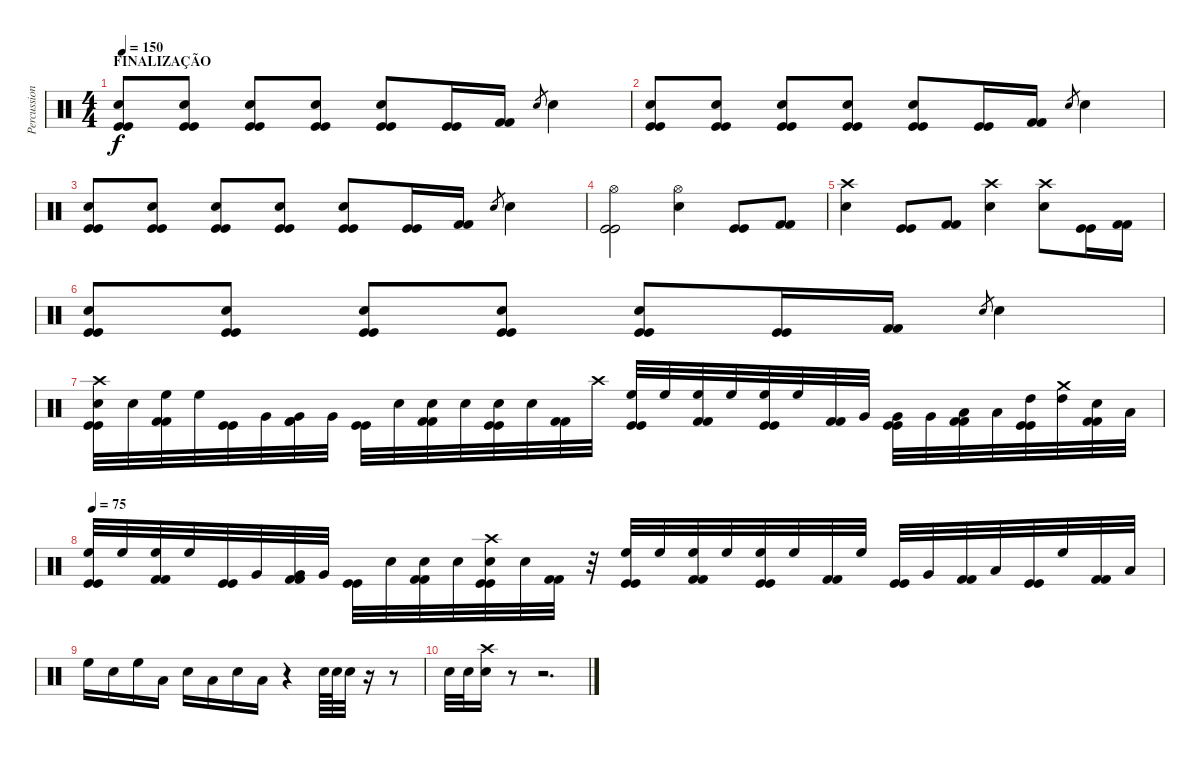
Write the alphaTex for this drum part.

\track ("Percussion" "Percussion") {instrument percussion}
\staff {score}
\articulation defaults
\ts (4 4)
\section ("" "FINALIZAÇÃO")
\tempo 150
\clef neutral
\ks c
("Electric Snare (hit)" "Kick (hit)" "Kick (hit)").8{dy f} ("Electric Snare (hit)" "Kick (hit)" "Kick (hit)").8 ("Electric Snare (hit)" "Kick (hit)" "Kick (hit)").8 ("Electric Snare (hit)" "Kick (hit)" "Kick (hit)").8 ("Electric Snare (hit)" "Kick (hit)" "Kick (hit)").8 ("Kick (hit)" "Kick (hit)").16 ("Kick (hit) 2" "Kick (hit) 2").16 "Electric Snare (hit)".8{gr} "Electric Snare (hit)".4 |
("Electric Snare (hit)" "Kick (hit)" "Kick (hit)").8 ("Electric Snare (hit)" "Kick (hit)" "Kick (hit)").8 ("Electric Snare (hit)" "Kick (hit)" "Kick (hit)").8 ("Electric Snare (hit)" "Kick (hit)" "Kick (hit)").8 ("Electric Snare (hit)" "Kick (hit)" "Kick (hit)").8 ("Kick (hit)" "Kick (hit)").16 ("Kick (hit) 2" "Kick (hit) 2").16 "Electric Snare (hit)".8{gr} "Electric Snare (hit)".4 |
("Electric Snare (hit)" "Kick (hit)" "Kick (hit)").8 ("Electric Snare (hit)" "Kick (hit)" "Kick (hit)").8 ("Electric Snare (hit)" "Kick (hit)" "Kick (hit)").8 ("Electric Snare (hit)" "Kick (hit)" "Kick (hit)").8 ("Electric Snare (hit)" "Kick (hit)" "Kick (hit)").8 ("Kick (hit)" "Kick (hit)").16 ("Kick (hit) 2" "Kick (hit) 2").16 "Electric Snare (hit)".8{gr} "Electric Snare (hit)".4 |
("Hi-Hat (open)" "Kick (hit)" "Kick (hit)").2 ("Hi-Hat (open)" "Electric Snare (hit)").4 ("Kick (hit)" "Kick (hit)").8 ("Kick (hit) 2" "Kick (hit) 2").8 |
("Crash high (hit)" "Electric Snare (hit)").4 ("Kick (hit)" "Kick (hit)").8 ("Kick (hit) 2" "Kick (hit) 2").8 ("Crash high (hit)" "Electric Snare (hit)").4 ("Crash high (hit)" "Electric Snare (hit)").8 ("Kick (hit)" "Kick (hit)").16 ("Kick (hit) 2" "Kick (hit) 2").16 |
("Electric Snare (hit)" "Kick (hit)" "Kick (hit)").8 ("Electric Snare (hit)" "Kick (hit)" "Kick (hit)").8 ("Electric Snare (hit)" "Kick (hit)" "Kick (hit)").8 ("Electric Snare (hit)" "Kick (hit)" "Kick (hit)").8 ("Electric Snare (hit)" "Kick (hit)" "Kick (hit)").8 ("Kick (hit)" "Kick (hit)").16 ("Kick (hit) 2" "Kick (hit) 2").16 "Electric Snare (hit)".8{gr} "Electric Snare (hit)".4 |
("Crash high (hit)" "Electric Snare (hit)" "Kick (hit)" "Kick (hit)").32 "Electric Snare (hit)".32 ("High Floor Tom (hit)" "Kick (hit) 2" "Kick (hit) 2").32 "High Floor Tom (hit)".32 ("Kick (hit)" "Kick (hit)").32 "Very Low Tom (hit)".32 ("Very Low Tom (hit)" "Kick (hit) 2" "Kick (hit) 2").32 "Very Low Tom (hit)".32 ("Kick (hit)" "Kick (hit)").32 "Electric Snare (hit)".32 ("Electric Snare (hit)" "Kick (hit) 2" "Kick (hit) 2").32 "Electric Snare (hit)".32 ("Electric Snare (hit)" "Kick (hit)" "Kick (hit)").32 "Electric Snare (hit)".32 ("Kick (hit) 2" "Kick (hit) 2").32 "Crash high (hit)".32 ("High Floor Tom (hit)" "Kick (hit)" "Kick (hit)").32 "High Floor Tom (hit)".32 ("High Floor Tom (hit)" "Kick (hit) 2" "Kick (hit) 2").32 "High Floor Tom (hit)".32 ("High Floor Tom (hit)" "Kick (hit)" "Kick (hit)").32 "High Floor Tom (hit)".32 ("Kick (hit) 2" "Kick (hit) 2").32 "Very Low Tom (hit)".32 ("Very Low Tom (hit)" "Kick (hit)" "Kick (hit)").32 "Very Low Tom (hit)".32 ("Low Tom (hit)" "Kick (hit) 2" "Kick (hit) 2").32 "Low Tom (hit)".32 ("High Tom (hit)" "Kick (hit)" "Kick (hit)").32 ("Crash medium (hit)" "High Tom (hit)").32 ("Electric Snare (hit)" "Kick (hit) 2" "Kick (hit) 2").32 "Low Floor Tom (hit)".32 |
\tempo 75
("High Floor Tom (hit)" "Kick (hit)" "Kick (hit)").32 "High Floor Tom (hit)".32 ("High Floor Tom (hit)" "Kick (hit) 2" "Kick (hit) 2").32 "High Floor Tom (hit)".32 ("Kick (hit)" "Kick (hit)").32 "Very Low Tom (hit)".32 ("Very Low Tom (hit)" "Kick (hit) 2" "Kick (hit) 2").32 "Very Low Tom (hit)".32 ("Kick (hit)" "Kick (hit)").32 "Electric Snare (hit)".32 ("Electric Snare (hit)" "Kick (hit) 2" "Kick (hit) 2").32 "Electric Snare (hit)".32 ("Crash high (hit)" "Electric Snare (hit)" "Kick (hit)" "Kick (hit)").32 "Electric Snare (hit)".32 ("Kick (hit) 2" "Kick (hit) 2").32 r.32 ("High Floor Tom (hit)" "Kick (hit)" "Kick (hit)").32 "High Floor Tom (hit)".32 ("High Floor Tom (hit)" "Kick (hit) 2" "Kick (hit) 2").32 "High Floor Tom (hit)".32 ("High Floor Tom (hit)" "Kick (hit)" "Kick (hit)").32 "High Floor Tom (hit)".32 ("Kick (hit) 2" "Kick (hit) 2").32 "High Floor Tom (hit)".32 ("Kick (hit)" "Kick (hit)").32 "Very Low Tom (hit)".32 ("Kick (hit) 2" "Kick (hit) 2").32 "Low Tom (hit)".32 ("Kick (hit)" "Kick (hit)").32 "High Floor Tom (hit)".32 ("Kick (hit) 2" "Kick (hit) 2").32 "Low Floor Tom (hit)".32 |
"High Floor Tom (hit)".16 "Electric Snare (hit)".16 "High Floor Tom (hit)".16 "Low Floor Tom (hit)".16 "Electric Snare (hit)".16 "Low Floor Tom (hit)".16 "Electric Snare (hit)".16 "Low Floor Tom (hit)".16 r.4 "Electric Snare (hit)".64 "Electric Snare (hit)".64 "Electric Snare (hit)".32 r.16 r.8 |
"Electric Snare (hit)".32 "Electric Snare (hit)".32 ("Crash high (hit)" "Electric Snare (hit)").16 r.8 r.2{d}
